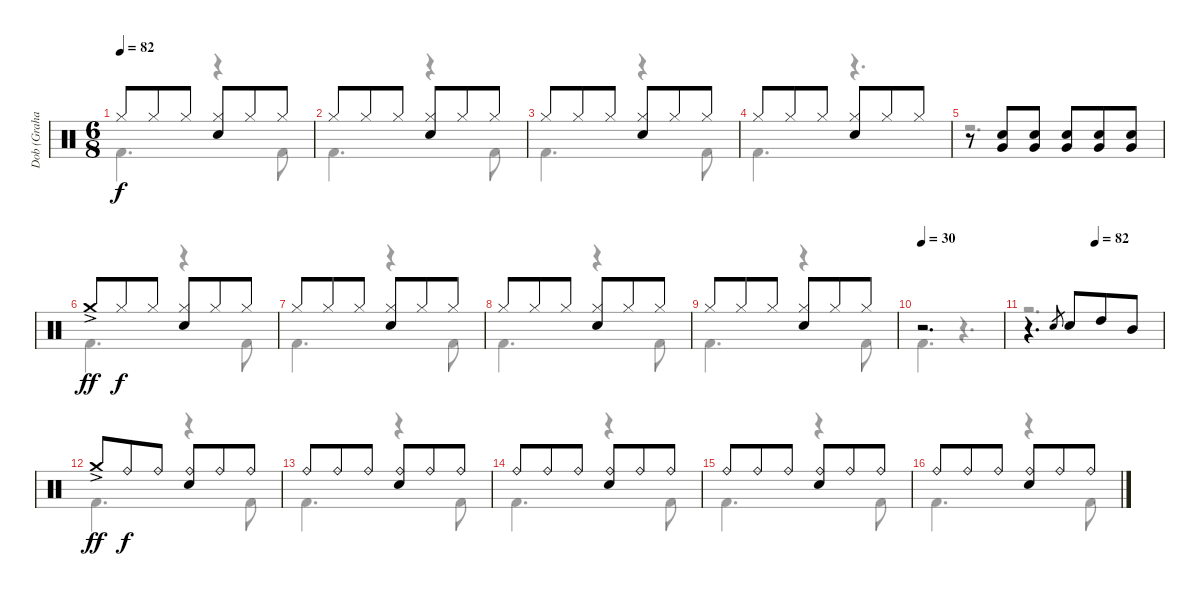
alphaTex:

\track ("Dob (Graham Walker)" "Dob (Graha") {instrument percussion}
\staff {score}
\articulation defaults
\voice
\ts (6 8)
\tempo 82
\clef neutral
\ks c "Hi-Hat (closed)".8{dy f} "Hi-Hat (closed)".8 "Hi-Hat (closed)".8
("Hi-Hat (closed)" "Electric Snare (hit)").8 "Hi-Hat (closed)".8 "Hi-Hat (closed)".8 |
"Hi-Hat (closed)".8 "Hi-Hat (closed)".8 "Hi-Hat (closed)".8 ("Hi-Hat (closed)" "Electric Snare (hit)").8 "Hi-Hat (closed)".8 "Hi-Hat (closed)".8 |
"Hi-Hat (closed)".8 "Hi-Hat (closed)".8 "Hi-Hat (closed)".8 ("Hi-Hat (closed)" "Electric Snare (hit)").8 "Hi-Hat (closed)".8 "Hi-Hat (closed)".8 |
"Hi-Hat (closed)".8 "Hi-Hat (closed)".8 "Hi-Hat (closed)".8 ("Hi-Hat (closed)" "Electric Snare (hit)").8 "Hi-Hat (closed)".8 "Hi-Hat (closed)".8 |
r.8 ("Electric Snare (hit)" "Very Low Tom (hit)").8 ("Electric Snare (hit)" "Very Low Tom (hit)").8 ("Electric Snare (hit)" "Very Low Tom (hit)").8 ("Electric Snare (hit)" "Very Low Tom (hit)").8 ("Electric Snare (hit)" "Very Low Tom (hit)").8 |
"Crash medium (hit)"{ac}.8{dy ff} "Hi-Hat (closed)".8{dy f} "Hi-Hat (closed)".8 ("Hi-Hat (closed)" "Electric Snare (hit)").8 "Hi-Hat (closed)".8 "Hi-Hat (closed)".8 |
"Hi-Hat (closed)".8 "Hi-Hat (closed)".8 "Hi-Hat (closed)".8 ("Hi-Hat (closed)" "Electric Snare (hit)").8 "Hi-Hat (closed)".8 "Hi-Hat (closed)".8 |
"Hi-Hat (closed)".8 "Hi-Hat (closed)".8 "Hi-Hat (closed)".8 ("Hi-Hat (closed)" "Electric Snare (hit)").8 "Hi-Hat (closed)".8 "Hi-Hat (closed)".8 |
"Hi-Hat (closed)".8 "Hi-Hat (closed)".8 "Hi-Hat (closed)".8 ("Hi-Hat (closed)" "Electric Snare (hit)").8 "Hi-Hat (closed)".8 "Hi-Hat (closed)".8 |
\tempo 30
r.2{d} |
\tempo (82 0.5)
r.4{d} "Electric Snare (hit)".8{gr} "Electric Snare (hit)".8 "High Tom (hit)".8 "Mid Tom (hit)".8 |
"Crash medium (hit)"{ac}.8{dy ff} "Ride (bell)".8{dy f} "Ride (bell)".8 ("Ride (bell)" "Electric Snare (hit)").8 "Ride (bell)".8 "Ride (bell)".8 |
"Ride (bell)".8 "Ride (bell)".8 "Ride (bell)".8 ("Ride (bell)" "Electric Snare (hit)").8 "Ride (bell)".8 "Ride (bell)".8 |
"Ride (bell)".8 "Ride (bell)".8 "Ride (bell)".8 ("Ride (bell)" "Electric Snare (hit)").8 "Ride (bell)".8 "Ride (bell)".8 |
"Ride (bell)".8 "Ride (bell)".8 "Ride (bell)".8 ("Ride (bell)" "Electric Snare (hit)").8 "Ride (bell)".8 "Ride (bell)".8 |
"Ride (bell)".8 "Ride (bell)".8 "Ride (bell)".8 ("Ride (bell)" "Electric Snare (hit)").8 "Ride (bell)".8 "Ride (bell)".8
\voice
\clef neutral
\ottava regular
\simile none
\ks c "Kick (hit) 2".4{d dy f}
r.4 "Kick (hit) 2".8 |
"Kick (hit) 2".4{d} r.4 "Kick (hit) 2".8 |
"Kick (hit) 2".4{d} r.4 "Kick (hit) 2".8 |
"Kick (hit) 2".4{d} r.4{d} |
r.2{d} |
"Kick (hit) 2".4{d} r.4 "Kick (hit) 2".8 |
"Kick (hit) 2".4{d} r.4 "Kick (hit) 2".8 |
"Kick (hit) 2".4{d} r.4 "Kick (hit) 2".8 |
"Kick (hit) 2".4{d} r.4 "Kick (hit) 2".8 |
"Kick (hit) 2".4{d} r.4{d} |
r.2{d} |
"Kick (hit) 2".4{d} r.4 "Kick (hit) 2".8 |
"Kick (hit) 2".4{d} r.4 "Kick (hit) 2".8 |
"Kick (hit) 2".4{d} r.4 "Kick (hit) 2".8 |
"Kick (hit) 2".4{d} r.4 "Kick (hit) 2".8 |
"Kick (hit) 2".4{d} r.4 "Kick (hit) 2".8
